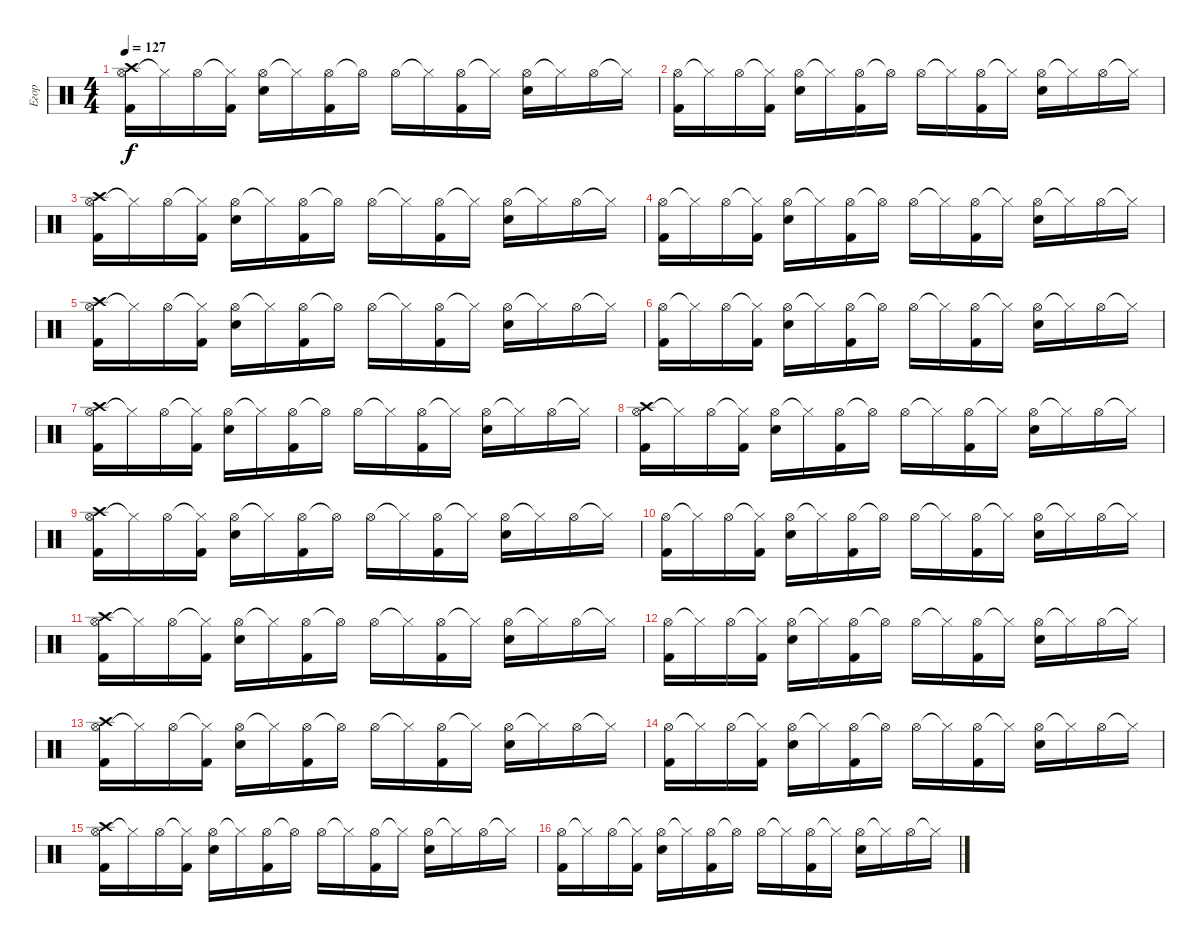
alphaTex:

\track ("Егор" "Егор") {instrument percussion}
\staff {score}
\articulation defaults
\ts (4 4)
\tempo 127
\clef neutral
\ks c
("Hi-Hat (open)" "Crash high (hit)" "Kick (hit) 2").16{dy f} "Hi-Hat (closed)"{t}.16 "Hi-Hat (open)".16 ("Hi-Hat (closed)"{t} "Kick (hit) 2").16 ("Hi-Hat (open)" "Electric Snare (hit)").16 "Hi-Hat (closed)"{t}.16 ("Hi-Hat (open)" "Kick (hit) 2").16 "Hi-Hat (open)"{t}.16 "Hi-Hat (open)".16 "Hi-Hat (closed)"{t}.16 ("Hi-Hat (open)" "Kick (hit) 2").16 "Hi-Hat (closed)"{t}.16 ("Hi-Hat (open)" "Electric Snare (hit)").16 "Hi-Hat (closed)"{t}.16 "Hi-Hat (open)".16 "Hi-Hat (closed)"{t}.16 |
("Hi-Hat (open)" "Kick (hit) 2").16 "Hi-Hat (closed)"{t}.16 "Hi-Hat (open)".16 ("Hi-Hat (closed)"{t} "Kick (hit) 2").16 ("Hi-Hat (open)" "Electric Snare (hit)").16 "Hi-Hat (closed)"{t}.16 ("Hi-Hat (open)" "Kick (hit) 2").16 "Hi-Hat (open)"{t}.16 "Hi-Hat (open)".16 "Hi-Hat (closed)"{t}.16 ("Hi-Hat (open)" "Kick (hit) 2").16 "Hi-Hat (closed)"{t}.16 ("Hi-Hat (open)" "Electric Snare (hit)").16 "Hi-Hat (closed)"{t}.16 "Hi-Hat (open)".16 "Hi-Hat (closed)"{t}.16 |
("Hi-Hat (open)" "Crash high (hit)" "Kick (hit) 2").16 "Hi-Hat (closed)"{t}.16 "Hi-Hat (open)".16 ("Hi-Hat (closed)"{t} "Kick (hit) 2").16 ("Hi-Hat (open)" "Electric Snare (hit)").16 "Hi-Hat (closed)"{t}.16 ("Hi-Hat (open)" "Kick (hit) 2").16 "Hi-Hat (open)"{t}.16 "Hi-Hat (open)".16 "Hi-Hat (closed)"{t}.16 ("Hi-Hat (open)" "Kick (hit) 2").16 "Hi-Hat (closed)"{t}.16 ("Hi-Hat (open)" "Electric Snare (hit)").16 "Hi-Hat (closed)"{t}.16 "Hi-Hat (open)".16 "Hi-Hat (closed)"{t}.16 |
("Hi-Hat (open)" "Kick (hit) 2").16 "Hi-Hat (closed)"{t}.16 "Hi-Hat (open)".16 ("Hi-Hat (closed)"{t} "Kick (hit) 2").16 ("Hi-Hat (open)" "Electric Snare (hit)").16 "Hi-Hat (closed)"{t}.16 ("Hi-Hat (open)" "Kick (hit) 2").16 "Hi-Hat (open)"{t}.16 "Hi-Hat (open)".16 "Hi-Hat (closed)"{t}.16 ("Hi-Hat (open)" "Kick (hit) 2").16 "Hi-Hat (closed)"{t}.16 ("Hi-Hat (open)" "Electric Snare (hit)").16 "Hi-Hat (closed)"{t}.16 "Hi-Hat (open)".16 "Hi-Hat (closed)"{t}.16 |
("Hi-Hat (open)" "Crash high (hit)" "Kick (hit) 2").16 "Hi-Hat (closed)"{t}.16 "Hi-Hat (open)".16 ("Hi-Hat (closed)"{t} "Kick (hit) 2").16 ("Hi-Hat (open)" "Electric Snare (hit)").16 "Hi-Hat (closed)"{t}.16 ("Hi-Hat (open)" "Kick (hit) 2").16 "Hi-Hat (open)"{t}.16 "Hi-Hat (open)".16 "Hi-Hat (closed)"{t}.16 ("Hi-Hat (open)" "Kick (hit) 2").16 "Hi-Hat (closed)"{t}.16 ("Hi-Hat (open)" "Electric Snare (hit)").16 "Hi-Hat (closed)"{t}.16 "Hi-Hat (open)".16 "Hi-Hat (closed)"{t}.16 |
("Hi-Hat (open)" "Kick (hit) 2").16 "Hi-Hat (closed)"{t}.16 "Hi-Hat (open)".16 ("Hi-Hat (closed)"{t} "Kick (hit) 2").16 ("Hi-Hat (open)" "Electric Snare (hit)").16 "Hi-Hat (closed)"{t}.16 ("Hi-Hat (open)" "Kick (hit) 2").16 "Hi-Hat (open)"{t}.16 "Hi-Hat (open)".16 "Hi-Hat (closed)"{t}.16 ("Hi-Hat (open)" "Kick (hit) 2").16 "Hi-Hat (closed)"{t}.16 ("Hi-Hat (open)" "Electric Snare (hit)").16 "Hi-Hat (closed)"{t}.16 "Hi-Hat (open)".16 "Hi-Hat (closed)"{t}.16 |
("Hi-Hat (open)" "Crash high (hit)" "Kick (hit) 2").16 "Hi-Hat (closed)"{t}.16 "Hi-Hat (open)".16 ("Hi-Hat (closed)"{t} "Kick (hit) 2").16 ("Hi-Hat (open)" "Electric Snare (hit)").16 "Hi-Hat (closed)"{t}.16 ("Hi-Hat (open)" "Kick (hit) 2").16 "Hi-Hat (open)"{t}.16 "Hi-Hat (open)".16 "Hi-Hat (closed)"{t}.16 ("Hi-Hat (open)" "Kick (hit) 2").16 "Hi-Hat (closed)"{t}.16 ("Hi-Hat (open)" "Electric Snare (hit)").16 "Hi-Hat (closed)"{t}.16 "Hi-Hat (open)".16 "Hi-Hat (closed)"{t}.16 |
("Hi-Hat (open)" "Crash high (hit)" "Kick (hit) 2").16 "Hi-Hat (closed)"{t}.16 "Hi-Hat (open)".16 ("Hi-Hat (closed)"{t} "Kick (hit) 2").16 ("Hi-Hat (open)" "Electric Snare (hit)").16 "Hi-Hat (closed)"{t}.16 ("Hi-Hat (open)" "Kick (hit) 2").16 "Hi-Hat (open)"{t}.16 "Hi-Hat (open)".16 "Hi-Hat (closed)"{t}.16 ("Hi-Hat (open)" "Kick (hit) 2").16 "Hi-Hat (closed)"{t}.16 ("Hi-Hat (open)" "Electric Snare (hit)").16 "Hi-Hat (closed)"{t}.16 "Hi-Hat (open)".16 "Hi-Hat (closed)"{t}.16 |
("Hi-Hat (open)" "Crash high (hit)" "Kick (hit) 2").16 "Hi-Hat (closed)"{t}.16 "Hi-Hat (open)".16 ("Hi-Hat (closed)"{t} "Kick (hit) 2").16 ("Hi-Hat (open)" "Electric Snare (hit)").16 "Hi-Hat (closed)"{t}.16 ("Hi-Hat (open)" "Kick (hit) 2").16 "Hi-Hat (open)"{t}.16 "Hi-Hat (open)".16 "Hi-Hat (closed)"{t}.16 ("Hi-Hat (open)" "Kick (hit) 2").16 "Hi-Hat (closed)"{t}.16 ("Hi-Hat (open)" "Electric Snare (hit)").16 "Hi-Hat (closed)"{t}.16 "Hi-Hat (open)".16 "Hi-Hat (closed)"{t}.16 |
("Hi-Hat (open)" "Kick (hit) 2").16 "Hi-Hat (closed)"{t}.16 "Hi-Hat (open)".16 ("Hi-Hat (closed)"{t} "Kick (hit) 2").16 ("Hi-Hat (open)" "Electric Snare (hit)").16 "Hi-Hat (closed)"{t}.16 ("Hi-Hat (open)" "Kick (hit) 2").16 "Hi-Hat (open)"{t}.16 "Hi-Hat (open)".16 "Hi-Hat (closed)"{t}.16 ("Hi-Hat (open)" "Kick (hit) 2").16 "Hi-Hat (closed)"{t}.16 ("Hi-Hat (open)" "Electric Snare (hit)").16 "Hi-Hat (closed)"{t}.16 "Hi-Hat (open)".16 "Hi-Hat (closed)"{t}.16 |
("Hi-Hat (open)" "Crash high (hit)" "Kick (hit) 2").16 "Hi-Hat (closed)"{t}.16 "Hi-Hat (open)".16 ("Hi-Hat (closed)"{t} "Kick (hit) 2").16 ("Hi-Hat (open)" "Electric Snare (hit)").16 "Hi-Hat (closed)"{t}.16 ("Hi-Hat (open)" "Kick (hit) 2").16 "Hi-Hat (open)"{t}.16 "Hi-Hat (open)".16 "Hi-Hat (closed)"{t}.16 ("Hi-Hat (open)" "Kick (hit) 2").16 "Hi-Hat (closed)"{t}.16 ("Hi-Hat (open)" "Electric Snare (hit)").16 "Hi-Hat (closed)"{t}.16 "Hi-Hat (open)".16 "Hi-Hat (closed)"{t}.16 |
("Hi-Hat (open)" "Kick (hit) 2").16 "Hi-Hat (closed)"{t}.16 "Hi-Hat (open)".16 ("Hi-Hat (closed)"{t} "Kick (hit) 2").16 ("Hi-Hat (open)" "Electric Snare (hit)").16 "Hi-Hat (closed)"{t}.16 ("Hi-Hat (open)" "Kick (hit) 2").16 "Hi-Hat (open)"{t}.16 "Hi-Hat (open)".16 "Hi-Hat (closed)"{t}.16 ("Hi-Hat (open)" "Kick (hit) 2").16 "Hi-Hat (closed)"{t}.16 ("Hi-Hat (open)" "Electric Snare (hit)").16 "Hi-Hat (closed)"{t}.16 "Hi-Hat (open)".16 "Hi-Hat (closed)"{t}.16 |
("Hi-Hat (open)" "Crash high (hit)" "Kick (hit) 2").16 "Hi-Hat (closed)"{t}.16 "Hi-Hat (open)".16 ("Hi-Hat (closed)"{t} "Kick (hit) 2").16 ("Hi-Hat (open)" "Electric Snare (hit)").16 "Hi-Hat (closed)"{t}.16 ("Hi-Hat (open)" "Kick (hit) 2").16 "Hi-Hat (open)"{t}.16 "Hi-Hat (open)".16 "Hi-Hat (closed)"{t}.16 ("Hi-Hat (open)" "Kick (hit) 2").16 "Hi-Hat (closed)"{t}.16 ("Hi-Hat (open)" "Electric Snare (hit)").16 "Hi-Hat (closed)"{t}.16 "Hi-Hat (open)".16 "Hi-Hat (closed)"{t}.16 |
("Hi-Hat (open)" "Kick (hit) 2").16 "Hi-Hat (closed)"{t}.16 "Hi-Hat (open)".16 ("Hi-Hat (closed)"{t} "Kick (hit) 2").16 ("Hi-Hat (open)" "Electric Snare (hit)").16 "Hi-Hat (closed)"{t}.16 ("Hi-Hat (open)" "Kick (hit) 2").16 "Hi-Hat (open)"{t}.16 "Hi-Hat (open)".16 "Hi-Hat (closed)"{t}.16 ("Hi-Hat (open)" "Kick (hit) 2").16 "Hi-Hat (closed)"{t}.16 ("Hi-Hat (open)" "Electric Snare (hit)").16 "Hi-Hat (closed)"{t}.16 "Hi-Hat (open)".16 "Hi-Hat (closed)"{t}.16 |
("Hi-Hat (open)" "Crash high (hit)" "Kick (hit) 2").16 "Hi-Hat (closed)"{t}.16 "Hi-Hat (open)".16 ("Hi-Hat (closed)"{t} "Kick (hit) 2").16 ("Hi-Hat (open)" "Electric Snare (hit)").16 "Hi-Hat (closed)"{t}.16 ("Hi-Hat (open)" "Kick (hit) 2").16 "Hi-Hat (open)"{t}.16 "Hi-Hat (open)".16 "Hi-Hat (closed)"{t}.16 ("Hi-Hat (open)" "Kick (hit) 2").16 "Hi-Hat (closed)"{t}.16 ("Hi-Hat (open)" "Electric Snare (hit)").16 "Hi-Hat (closed)"{t}.16 "Hi-Hat (open)".16 "Hi-Hat (closed)"{t}.16 |
("Hi-Hat (open)" "Kick (hit) 2").16 "Hi-Hat (closed)"{t}.16 "Hi-Hat (open)".16 ("Hi-Hat (closed)"{t} "Kick (hit) 2").16 ("Hi-Hat (open)" "Electric Snare (hit)").16 "Hi-Hat (closed)"{t}.16 ("Hi-Hat (open)" "Kick (hit) 2").16 "Hi-Hat (open)"{t}.16 "Hi-Hat (open)".16 "Hi-Hat (closed)"{t}.16 ("Hi-Hat (open)" "Kick (hit) 2").16 "Hi-Hat (closed)"{t}.16 ("Hi-Hat (open)" "Electric Snare (hit)").16 "Hi-Hat (closed)"{t}.16 "Hi-Hat (open)".16 "Hi-Hat (closed)"{t}.16
